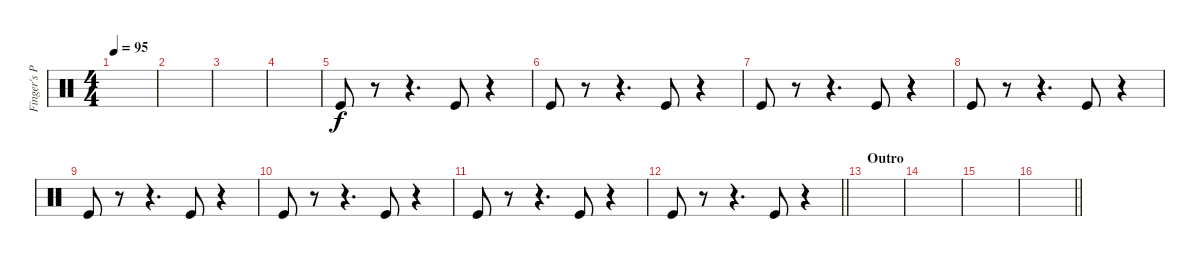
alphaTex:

\track ("Finger's Percussive" "Finger's P") {instrument percussion}
\staff {score}
\articulation defaults
\ts (4 4)
\tempo 95
\clef neutral
\ks c
|
|
|
|
"Kick (hit)".8 r.8 r.4{d} "Kick (hit)".8 r.4 |
"Kick (hit)".8 r.8 r.4{d} "Kick (hit)".8 r.4 |
"Kick (hit)".8 r.8 r.4{d} "Kick (hit)".8 r.4 |
"Kick (hit)".8 r.8 r.4{d} "Kick (hit)".8 r.4 |
"Kick (hit)".8 r.8 r.4{d} "Kick (hit)".8 r.4 |
"Kick (hit)".8 r.8 r.4{d} "Kick (hit)".8 r.4 |
"Kick (hit)".8 r.8 r.4{d} "Kick (hit)".8 r.4 |
\barLineRight lightlight "Kick (hit)".8
r.8 r.4{d} "Kick (hit)".8 r.4 |
\section ("" "Outro")
|
|
|
\barLineRight lightlight
